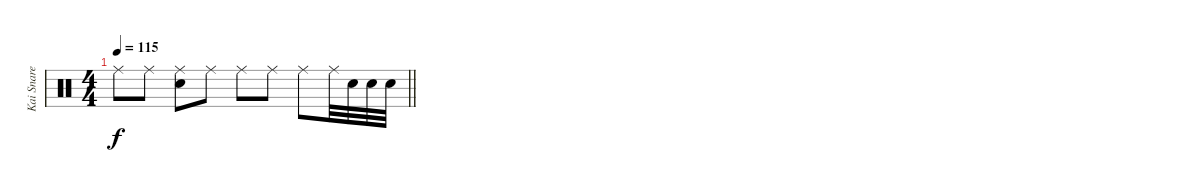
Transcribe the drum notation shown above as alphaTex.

\track ("Kai Snare" "Kai Snare") {instrument percussion}
\staff {score}
\articulation defaults
\ts (4 4)
\tempo 115
\clef neutral
\barLineRight lightlight
\ks c "Ride (middle)".8{dy f} "Ride (middle)".8
("Ride (middle)" "Snare (hit) 2").8 "Ride (middle)".8 "Ride (middle)".8 "Ride (middle)".8 "Ride (middle)".8 "Ride (middle)".32 "Snare (hit) 2".32 "Snare (hit) 2".32 "Snare (hit) 2".32
